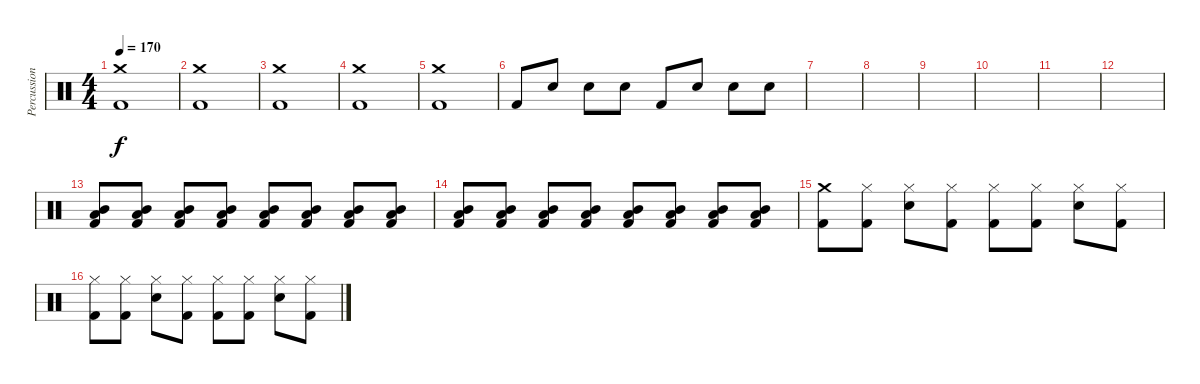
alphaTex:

\track ("Percussion" "Percussion") {instrument percussion}
\staff {score}
\articulation defaults
\ts (4 4)
\tempo 170
\clef neutral
\ks c
("Crash medium (hit)" "Kick (hit) 2").1{dy f} |
("Crash medium (hit)" "Kick (hit) 2").1 |
("Crash medium (hit)" "Kick (hit) 2").1 |
("Crash medium (hit)" "Kick (hit) 2").1 |
("Crash medium (hit)" "Kick (hit) 2").1 |
"Kick (hit) 2".8 "Snare (hit) 2".8 "Snare (hit) 2".8 "Snare (hit) 2".8 "Kick (hit) 2".8 "Snare (hit) 2".8 "Snare (hit) 2".8 "Snare (hit) 2".8 |
|
|
|
|
|
|
("Mid Tom (hit)" "Low Floor Tom (hit)" "Kick (hit) 2").8{volume 8} ("Mid Tom (hit)" "Low Floor Tom (hit)" "Kick (hit) 2").8 ("Mid Tom (hit)" "Low Floor Tom (hit)" "Kick (hit) 2").8 ("Mid Tom (hit)" "Low Floor Tom (hit)" "Kick (hit) 2").8 ("Mid Tom (hit)" "Low Floor Tom (hit)" "Kick (hit) 2").8 ("Mid Tom (hit)" "Low Floor Tom (hit)" "Kick (hit) 2").8 ("Mid Tom (hit)" "Low Floor Tom (hit)" "Kick (hit) 2").8 ("Mid Tom (hit)" "Low Floor Tom (hit)" "Kick (hit) 2").8 |
("Mid Tom (hit)" "Low Floor Tom (hit)" "Kick (hit) 2").8 ("Mid Tom (hit)" "Low Floor Tom (hit)" "Kick (hit) 2").8 ("Mid Tom (hit)" "Low Floor Tom (hit)" "Kick (hit) 2").8 ("Mid Tom (hit)" "Low Floor Tom (hit)" "Kick (hit) 2").8 ("Mid Tom (hit)" "Low Floor Tom (hit)" "Kick (hit) 2").8 ("Mid Tom (hit)" "Low Floor Tom (hit)" "Kick (hit) 2").8 ("Mid Tom (hit)" "Low Floor Tom (hit)" "Kick (hit) 2").8 ("Mid Tom (hit)" "Low Floor Tom (hit)" "Kick (hit) 2").8 |
("Crash medium (hit)" "Kick (hit) 2").8 ("Hi-Hat (closed)" "Kick (hit) 2").8 ("Hi-Hat (closed)" "Snare (hit) 2").8 ("Hi-Hat (closed)" "Kick (hit) 2").8 ("Hi-Hat (closed)" "Kick (hit) 2").8 ("Hi-Hat (closed)" "Kick (hit) 2").8 ("Hi-Hat (closed)" "Snare (hit) 2").8 ("Hi-Hat (closed)" "Kick (hit) 2").8 |
("Hi-Hat (closed)" "Kick (hit) 2").8 ("Hi-Hat (closed)" "Kick (hit) 2").8 ("Hi-Hat (closed)" "Snare (hit) 2").8 ("Hi-Hat (closed)" "Kick (hit) 2").8 ("Hi-Hat (closed)" "Kick (hit) 2").8 ("Hi-Hat (closed)" "Kick (hit) 2").8 ("Hi-Hat (closed)" "Snare (hit) 2").8 ("Hi-Hat (closed)" "Kick (hit) 2").8
